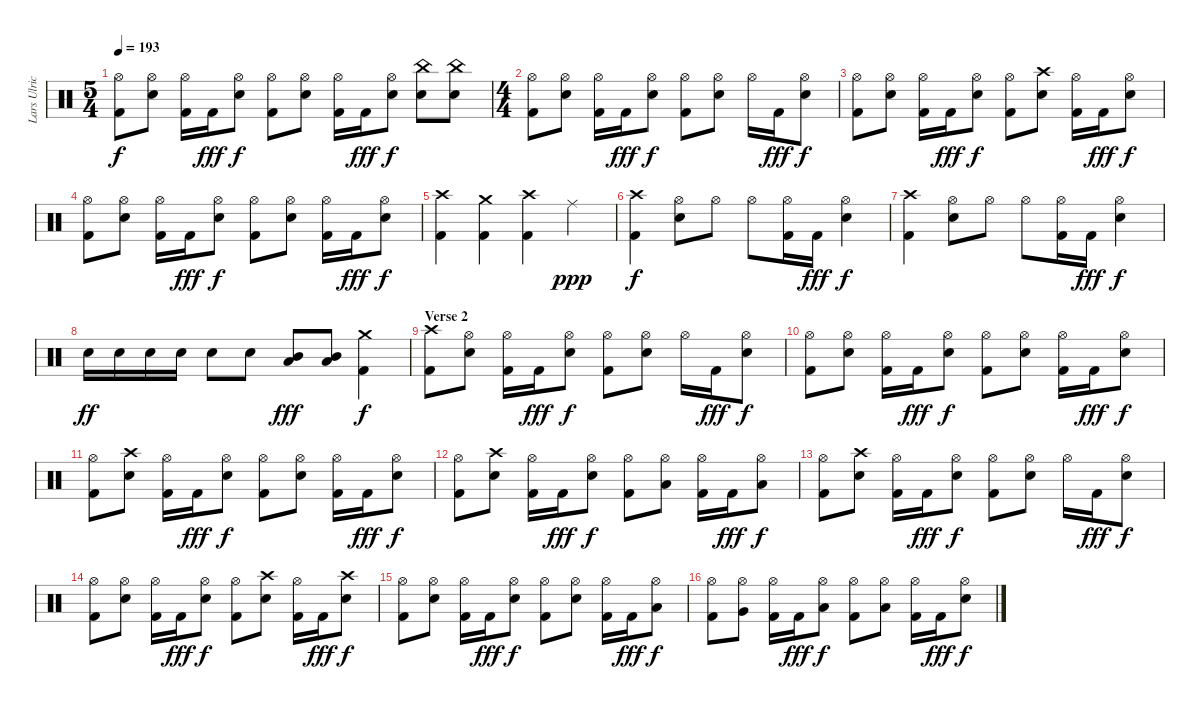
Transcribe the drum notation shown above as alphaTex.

\track ("Lars Ulrich - Drums" "Lars Ulric") {instrument percussion}
\staff {score}
\articulation defaults
\ts (5 4)
\tempo 193
\clef neutral
\ks c
("Hi-Hat (open)" "Kick (hit) 2").8{dy f} ("Hi-Hat (open)" "Snare (hit) 2").8 ("Hi-Hat (open)" "Kick (hit) 2").16 "Kick (hit) 2".16{dy fff} ("Hi-Hat (open)" "Snare (hit) 2").8{dy f} ("Hi-Hat (open)" "Kick (hit) 2").8 ("Hi-Hat (open)" "Snare (hit) 2").8 ("Hi-Hat (open)" "Kick (hit) 2").16 "Kick (hit) 2".16{dy fff} ("Hi-Hat (open)" "Snare (hit) 2").8{dy f} ("China (hit)" "Snare (hit) 2").8 ("China (hit)" "Snare (hit) 2").8 |
\ts (4 4)
("Hi-Hat (open)" "Kick (hit) 2").8 ("Hi-Hat (open)" "Snare (hit) 2").8 ("Hi-Hat (open)" "Kick (hit) 2").16 "Kick (hit) 2".16{dy fff} ("Hi-Hat (open)" "Snare (hit) 2").8{dy f} ("Hi-Hat (open)" "Kick (hit) 2").8 ("Hi-Hat (open)" "Snare (hit) 2").8 "Hi-Hat (open)".16 "Kick (hit) 2".16{dy fff} ("Hi-Hat (open)" "Snare (hit) 2").8{dy f} |
("Hi-Hat (open)" "Kick (hit) 2").8 ("Hi-Hat (open)" "Snare (hit) 2").8 ("Hi-Hat (open)" "Kick (hit) 2").16 "Kick (hit) 2".16{dy fff} ("Hi-Hat (open)" "Snare (hit) 2").8{dy f} ("Hi-Hat (open)" "Kick (hit) 2").8 ("Crash high (hit)" "Snare (hit) 2").8 ("Hi-Hat (open)" "Kick (hit) 2").16 "Kick (hit) 2".16{dy fff} ("Hi-Hat (open)" "Snare (hit) 2").8{dy f} |
("Hi-Hat (open)" "Kick (hit) 2").8 ("Hi-Hat (open)" "Snare (hit) 2").8 ("Hi-Hat (open)" "Kick (hit) 2").16 "Kick (hit) 2".16{dy fff} ("Hi-Hat (open)" "Snare (hit) 2").8{dy f} ("Hi-Hat (open)" "Kick (hit) 2").8 ("Hi-Hat (open)" "Snare (hit) 2").8 ("Hi-Hat (open)" "Kick (hit) 2").16 "Kick (hit) 2".16{dy fff} ("Hi-Hat (open)" "Snare (hit) 2").8{dy f} |
("Crash high (hit)" "Kick (hit) 2").4 ("Crash medium (hit)" "Kick (hit) 2").4 ("Crash high (hit)" "Kick (hit) 2").4 "Ride (middle)".4{dy ppp} |
("Crash high (hit)" "Kick (hit) 2").4{dy f} ("Hi-Hat (open)" "Snare (hit) 2").8 "Hi-Hat (open)".8 "Hi-Hat (open)".8 ("Hi-Hat (open)" "Kick (hit) 2").16 "Kick (hit) 2".16{dy fff} ("Hi-Hat (open)" "Snare (hit) 2").4{dy f} |
("Crash high (hit)" "Kick (hit) 2").4 ("Hi-Hat (open)" "Snare (hit) 2").8 "Hi-Hat (open)".8 "Hi-Hat (open)".8 ("Hi-Hat (open)" "Kick (hit) 2").16 "Kick (hit) 2".16{dy fff} ("Hi-Hat (open)" "Snare (hit) 2").4{dy f} |
"Snare (hit) 2".16{dy ff} "Snare (hit) 2".16 "Snare (hit) 2".16 "Snare (hit) 2".16 "Snare (hit) 2".8 "Snare (hit) 2".8 ("Mid Tom (hit)" "Low Tom (hit)").8{dy fff} ("Mid Tom (hit)" "Low Tom (hit)").8 ("Crash medium (hit)" "Kick (hit) 2").4{dy f} |
\section ("" "Verse 2")
("Crash high (hit)" "Kick (hit) 2").8 ("Hi-Hat (open)" "Snare (hit) 2").8 ("Hi-Hat (open)" "Kick (hit) 2").16 "Kick (hit) 2".16{dy fff} ("Hi-Hat (open)" "Snare (hit) 2").8{dy f} ("Hi-Hat (open)" "Kick (hit) 2").8 ("Hi-Hat (open)" "Snare (hit) 2").8 "Hi-Hat (open)".16 "Kick (hit) 2".16{dy fff} ("Hi-Hat (open)" "Snare (hit) 2").8{dy f} |
("Hi-Hat (open)" "Kick (hit) 2").8 ("Hi-Hat (open)" "Snare (hit) 2").8 ("Hi-Hat (open)" "Kick (hit) 2").16 "Kick (hit) 2".16{dy fff} ("Hi-Hat (open)" "Snare (hit) 2").8{dy f} ("Hi-Hat (open)" "Kick (hit) 2").8 ("Hi-Hat (open)" "Snare (hit) 2").8 ("Hi-Hat (open)" "Kick (hit) 2").16 "Kick (hit) 2".16{dy fff} ("Hi-Hat (open)" "Snare (hit) 2").8{dy f} |
("Hi-Hat (open)" "Kick (hit) 2").8 ("Crash high (hit)" "Snare (hit) 2").8 ("Hi-Hat (open)" "Kick (hit) 2").16 "Kick (hit) 2".16{dy fff} ("Hi-Hat (open)" "Snare (hit) 2").8{dy f} ("Hi-Hat (open)" "Kick (hit) 2").8 ("Hi-Hat (open)" "Snare (hit) 2").8 ("Hi-Hat (open)" "Kick (hit) 2").16 "Kick (hit) 2".16{dy fff} ("Hi-Hat (open)" "Snare (hit) 2").8{dy f} |
("Hi-Hat (open)" "Kick (hit) 2").8 ("Crash high (hit)" "Snare (hit) 2").8 ("Hi-Hat (open)" "Kick (hit) 2").16 "Kick (hit) 2".16{dy fff} ("Hi-Hat (open)" "Snare (hit) 2").8{dy f} ("Hi-Hat (open)" "Kick (hit) 2").8 ("Hi-Hat (open)" "Low Tom (hit)").8 ("Hi-Hat (open)" "Kick (hit) 2").16 "Kick (hit) 2".16{dy fff} ("Hi-Hat (open)" "Low Tom (hit)").8{dy f} |
("Hi-Hat (open)" "Kick (hit) 2").8 ("Crash high (hit)" "Snare (hit) 2").8 ("Hi-Hat (open)" "Kick (hit) 2").16 "Kick (hit) 2".16{dy fff} ("Hi-Hat (open)" "Snare (hit) 2").8{dy f} ("Hi-Hat (open)" "Kick (hit) 2").8 ("Hi-Hat (open)" "Snare (hit) 2").8 "Hi-Hat (open)".16 "Kick (hit) 2".16{dy fff} ("Hi-Hat (open)" "Snare (hit) 2").8{dy f} |
("Hi-Hat (open)" "Kick (hit) 2").8 ("Hi-Hat (open)" "Snare (hit) 2").8 ("Hi-Hat (open)" "Kick (hit) 2").16 "Kick (hit) 2".16{dy fff} ("Hi-Hat (open)" "Snare (hit) 2").8{dy f} ("Hi-Hat (open)" "Kick (hit) 2").8 ("Crash high (hit)" "Snare (hit) 2").8 ("Hi-Hat (open)" "Kick (hit) 2").16 "Kick (hit) 2".16{dy fff} ("Crash high (hit)" "Snare (hit) 2").8{dy f} |
("Hi-Hat (open)" "Kick (hit) 2").8 ("Hi-Hat (open)" "Snare (hit) 2").8 ("Hi-Hat (open)" "Kick (hit) 2").16 "Kick (hit) 2".16{dy fff} ("Hi-Hat (open)" "Snare (hit) 2").8{dy f} ("Hi-Hat (open)" "Kick (hit) 2").8 ("Hi-Hat (open)" "Snare (hit) 2").8 ("Hi-Hat (open)" "Kick (hit) 2").16 "Kick (hit) 2".16{dy fff} ("Hi-Hat (open)" "Low Tom (hit)").8{dy f} |
("Hi-Hat (open)" "Kick (hit) 2").8 ("Hi-Hat (open)" "Very Low Tom (hit)").8 ("Hi-Hat (open)" "Kick (hit) 2").16 "Kick (hit) 2".16{dy fff} ("Hi-Hat (open)" "Low Tom (hit)").8{dy f} ("Hi-Hat (open)" "Kick (hit) 2").8 ("Hi-Hat (open)" "Low Tom (hit)").8 ("Hi-Hat (open)" "Kick (hit) 2").16 "Kick (hit) 2".16{dy fff} ("Hi-Hat (open)" "Snare (hit) 2").8{dy f}
